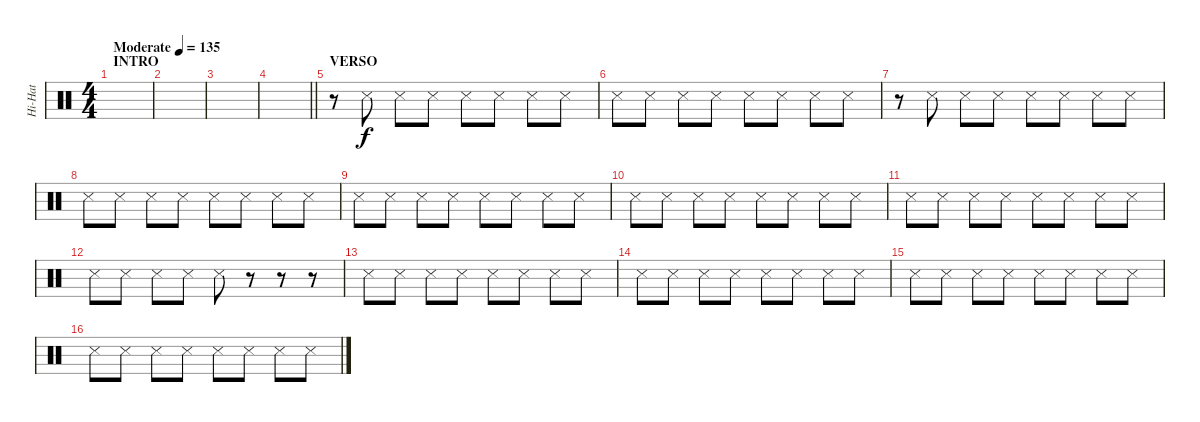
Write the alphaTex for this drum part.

\track ("Hi-Hat" "Hi-Hat") {instrument percussion}
\staff {score}
\articulation defaults
\ts (4 4)
\section ("" "INTRO")
\tempo (135 "Moderate")
\clef neutral
\ks c
|
|
|
\barLineRight lightlight
|
\section ("" "VERSO")
r.8 "Metronome (hit)".8 "Metronome (hit)".8 "Metronome (hit)".8 "Metronome (hit)".8 "Metronome (hit)".8 "Metronome (hit)".8 "Metronome (hit)".8 |
"Metronome (hit)".8 "Metronome (hit)".8 "Metronome (hit)".8 "Metronome (hit)".8 "Metronome (hit)".8 "Metronome (hit)".8 "Metronome (hit)".8 "Metronome (hit)".8 |
r.8 "Metronome (hit)".8 "Metronome (hit)".8 "Metronome (hit)".8 "Metronome (hit)".8 "Metronome (hit)".8 "Metronome (hit)".8 "Metronome (hit)".8 |
"Metronome (hit)".8 "Metronome (hit)".8 "Metronome (hit)".8 "Metronome (hit)".8 "Metronome (hit)".8 "Metronome (hit)".8 "Metronome (hit)".8 "Metronome (hit)".8 |
"Metronome (hit)".8 "Metronome (hit)".8 "Metronome (hit)".8 "Metronome (hit)".8 "Metronome (hit)".8 "Metronome (hit)".8 "Metronome (hit)".8 "Metronome (hit)".8 |
"Metronome (hit)".8 "Metronome (hit)".8 "Metronome (hit)".8 "Metronome (hit)".8 "Metronome (hit)".8 "Metronome (hit)".8 "Metronome (hit)".8 "Metronome (hit)".8 |
"Metronome (hit)".8 "Metronome (hit)".8 "Metronome (hit)".8 "Metronome (hit)".8 "Metronome (hit)".8 "Metronome (hit)".8 "Metronome (hit)".8 "Metronome (hit)".8 |
"Metronome (hit)".8 "Metronome (hit)".8 "Metronome (hit)".8 "Metronome (hit)".8 "Metronome (hit)".8 r.8 r.8 r.8 |
"Metronome (hit)".8 "Metronome (hit)".8 "Metronome (hit)".8 "Metronome (hit)".8 "Metronome (hit)".8 "Metronome (hit)".8 "Metronome (hit)".8 "Metronome (hit)".8 |
"Metronome (hit)".8 "Metronome (hit)".8 "Metronome (hit)".8 "Metronome (hit)".8 "Metronome (hit)".8 "Metronome (hit)".8 "Metronome (hit)".8 "Metronome (hit)".8 |
"Metronome (hit)".8 "Metronome (hit)".8 "Metronome (hit)".8 "Metronome (hit)".8 "Metronome (hit)".8 "Metronome (hit)".8 "Metronome (hit)".8 "Metronome (hit)".8 |
"Metronome (hit)".8 "Metronome (hit)".8 "Metronome (hit)".8 "Metronome (hit)".8 "Metronome (hit)".8 "Metronome (hit)".8 "Metronome (hit)".8 "Metronome (hit)".8
